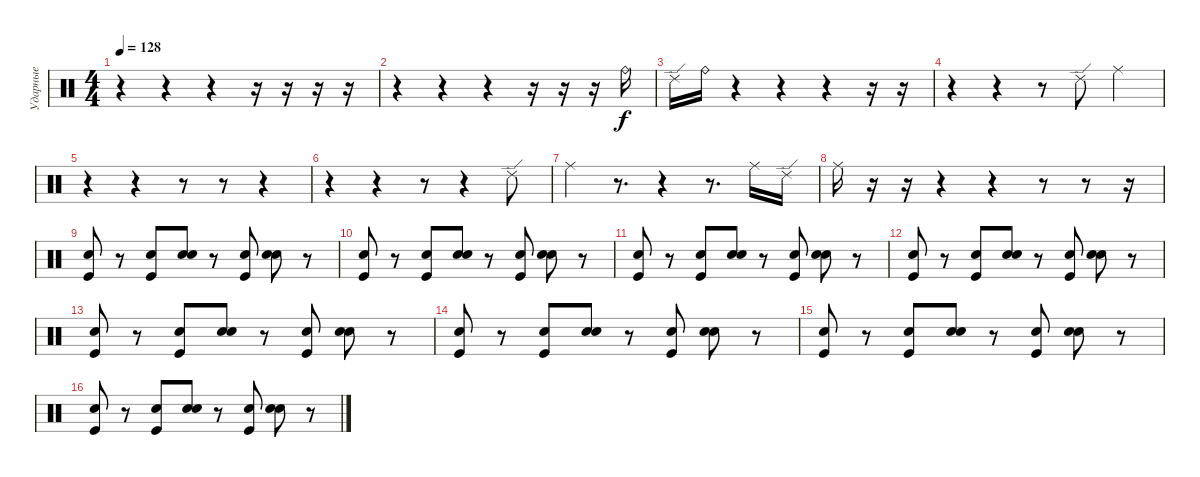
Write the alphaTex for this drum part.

\track ("Ударные" "Ударные") {instrument percussion}
\staff {score}
\articulation defaults
\ts (4 4)
\tempo 128
\clef neutral
\ks c
r.4{dy f} r.4 r.4 r.16 r.16 r.16 r.16 |
r.4 r.4 r.4 r.16 r.16 r.16 "Ride (bell)".16 |
"Ride (edge) 2".16 "Ride (bell)".16 r.4 r.4 r.4 r.16 r.16 |
r.4 r.4 r.8 "Ride (edge) 2".8 "Ride (middle)".4 |
r.4 r.4 r.8 r.8 r.4 |
r.4 r.4 r.8 r.4 "Ride (edge) 2".8 |
"Ride (middle)".4 r.8{d} r.4 r.8{d} "Ride (middle)".16 "Ride (edge) 2".16 |
"Ride (middle)".16 r.16 r.16 r.4 r.4 r.8 r.8 r.16 |
("Electric Snare (hit)" "Kick (hit)").8 r.8 ("Electric Snare (hit)" "Kick (hit)").8 ("Electric Snare (hit)" "Snare (hit) 2").8 r.8 ("Electric Snare (hit)" "Kick (hit)").8 ("Electric Snare (hit)" "Snare (hit) 2").8 r.8 |
("Electric Snare (hit)" "Kick (hit)").8 r.8 ("Electric Snare (hit)" "Kick (hit)").8 ("Electric Snare (hit)" "Snare (hit) 2").8 r.8 ("Electric Snare (hit)" "Kick (hit)").8 ("Electric Snare (hit)" "Snare (hit) 2").8 r.8 |
("Electric Snare (hit)" "Kick (hit)").8 r.8 ("Electric Snare (hit)" "Kick (hit)").8 ("Electric Snare (hit)" "Snare (hit) 2").8 r.8 ("Electric Snare (hit)" "Kick (hit)").8 ("Electric Snare (hit)" "Snare (hit) 2").8 r.8 |
("Electric Snare (hit)" "Kick (hit)").8 r.8 ("Electric Snare (hit)" "Kick (hit)").8 ("Electric Snare (hit)" "Snare (hit) 2").8 r.8 ("Electric Snare (hit)" "Kick (hit)").8 ("Electric Snare (hit)" "Snare (hit) 2").8 r.8 |
("Electric Snare (hit)" "Kick (hit)").8 r.8 ("Electric Snare (hit)" "Kick (hit)").8 ("Electric Snare (hit)" "Snare (hit) 2").8 r.8 ("Electric Snare (hit)" "Kick (hit)").8 ("Electric Snare (hit)" "Snare (hit) 2").8 r.8 |
("Electric Snare (hit)" "Kick (hit)").8 r.8 ("Electric Snare (hit)" "Kick (hit)").8 ("Electric Snare (hit)" "Snare (hit) 2").8 r.8 ("Electric Snare (hit)" "Kick (hit)").8 ("Electric Snare (hit)" "Snare (hit) 2").8 r.8 |
("Electric Snare (hit)" "Kick (hit)").8 r.8 ("Electric Snare (hit)" "Kick (hit)").8 ("Electric Snare (hit)" "Snare (hit) 2").8 r.8 ("Electric Snare (hit)" "Kick (hit)").8 ("Electric Snare (hit)" "Snare (hit) 2").8 r.8 |
("Electric Snare (hit)" "Kick (hit)").8 r.8 ("Electric Snare (hit)" "Kick (hit)").8 ("Electric Snare (hit)" "Snare (hit) 2").8 r.8 ("Electric Snare (hit)" "Kick (hit)").8 ("Electric Snare (hit)" "Snare (hit) 2").8 r.8
